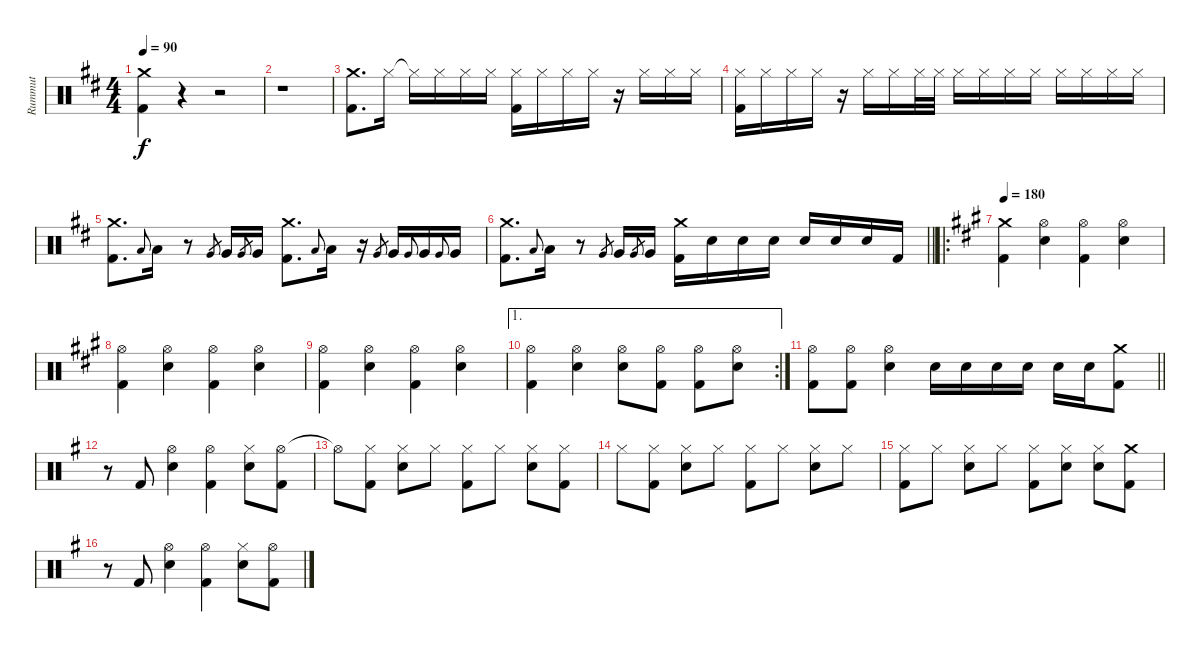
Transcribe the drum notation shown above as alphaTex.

\track ("Rummut" "Rummut") {instrument percussion}
\staff {score}
\articulation defaults
\ts (4 4)
\tempo 90
\clef neutral
\ks d
("Crash medium (hit)" "Kick (hit) 2").4{dy f} r.4 r.2 |
r.1 |
("Crash medium (hit)" "Kick (hit) 2").8{d} "Hi-Hat (closed)".16 "Hi-Hat (closed)"{t}.16 "Hi-Hat (closed)".16 "Hi-Hat (closed)".16 "Hi-Hat (closed)".16 ("Hi-Hat (closed)" "Kick (hit) 2").16 "Hi-Hat (closed)".16 "Hi-Hat (closed)".16 "Hi-Hat (closed)".16 r.16 "Hi-Hat (closed)".16 "Hi-Hat (closed)".16 "Hi-Hat (closed)".16 |
("Hi-Hat (closed)" "Kick (hit) 2").16 "Hi-Hat (closed)".16 "Hi-Hat (closed)".16 "Hi-Hat (closed)".16 r.16 "Hi-Hat (closed)".16 "Hi-Hat (closed)".16 "Hi-Hat (closed)".32 "Hi-Hat (closed)".32 "Hi-Hat (closed)".16 "Hi-Hat (closed)".16 "Hi-Hat (closed)".16 "Hi-Hat (closed)".16 "Hi-Hat (closed)".16 "Hi-Hat (closed)".16 "Hi-Hat (closed)".16 "Hi-Hat (closed)".16 |
("Crash medium (hit)" "Kick (hit) 2").8{d} "Low Tom (hit)".8{gr onbeat} "Low Tom (hit)".16 r.8 "Very Low Tom (hit)".8{gr} "Very Low Tom (hit)".16 "Very Low Tom (hit)".8{gr} "Very Low Tom (hit)".16 ("Crash medium (hit)" "Kick (hit) 2").8{d} "Low Tom (hit)".8{gr onbeat} "Low Tom (hit)".16 r.16 "Very Low Tom (hit)".8{gr} "Very Low Tom (hit)".16 "Very Low Tom (hit)".8{gr onbeat} "Very Low Tom (hit)".16 "Very Low Tom (hit)".8{gr onbeat} "Very Low Tom (hit)".16 |
\barLineRight lightlight
("Crash medium (hit)" "Kick (hit) 2").8{d} "Low Tom (hit)".8{gr onbeat} "Low Tom (hit)".16 r.8 "Very Low Tom (hit)".8{gr} "Very Low Tom (hit)".16 "Very Low Tom (hit)".8{gr} "Very Low Tom (hit)".16 ("Crash medium (hit)" "Kick (hit) 2").16 "Snare (hit) 2".16 "Snare (hit) 2".16 "Snare (hit) 2".16 "Snare (hit) 2".16 "Snare (hit) 2".16 "Snare (hit) 2".16 "Kick (hit) 2".16 |
\ro
\tempo 180
\ks a
("Crash medium (hit)" "Kick (hit) 2").4 ("Hi-Hat (open)" "Snare (hit) 2").4 ("Hi-Hat (open)" "Kick (hit) 2").4 ("Hi-Hat (open)" "Snare (hit) 2").4 |
("Hi-Hat (open)" "Kick (hit) 2").4 ("Hi-Hat (open)" "Snare (hit) 2").4 ("Hi-Hat (open)" "Kick (hit) 2").4 ("Hi-Hat (open)" "Snare (hit) 2").4 |
("Hi-Hat (open)" "Kick (hit) 2").4 ("Hi-Hat (open)" "Snare (hit) 2").4 ("Hi-Hat (open)" "Kick (hit) 2").4 ("Hi-Hat (open)" "Snare (hit) 2").4 |
\ae 1
\rc 2
("Hi-Hat (open)" "Kick (hit) 2").4 ("Hi-Hat (open)" "Snare (hit) 2").4 ("Hi-Hat (open)" "Snare (hit) 2").8 ("Hi-Hat (open)" "Kick (hit) 2").8 ("Hi-Hat (open)" "Kick (hit) 2").8 ("Hi-Hat (open)" "Snare (hit) 2").8 |
\barLineRight lightlight
("Hi-Hat (open)" "Kick (hit) 2").8 ("Hi-Hat (open)" "Kick (hit) 2").8 ("Hi-Hat (open)" "Snare (hit) 2").4 "Snare (hit) 2".16 "Snare (hit) 2".16 "Snare (hit) 2".16 "Snare (hit) 2".16 "Snare (hit) 2".16 "Snare (hit) 2".16 ("Crash medium (hit)" "Kick (hit) 2").8 |
\ks g
r.8 "Kick (hit) 2".8 ("Hi-Hat (open)" "Snare (hit) 2").4 ("Hi-Hat (open)" "Kick (hit) 2").4 ("Hi-Hat (closed)" "Snare (hit) 2").8 ("Hi-Hat (open)" "Kick (hit) 2").8 |
"Hi-Hat (open)"{t}.8 ("Hi-Hat (closed)" "Kick (hit) 2").8 ("Hi-Hat (closed)" "Snare (hit) 2").8 "Hi-Hat (closed)".8 ("Hi-Hat (closed)" "Kick (hit) 2").8 "Hi-Hat (closed)".8 ("Hi-Hat (closed)" "Snare (hit) 2").8 ("Hi-Hat (closed)" "Kick (hit) 2").8 |
"Hi-Hat (closed)".8 ("Hi-Hat (closed)" "Kick (hit) 2").8 ("Hi-Hat (closed)" "Snare (hit) 2").8 "Hi-Hat (closed)".8 ("Hi-Hat (closed)" "Kick (hit) 2").8 "Hi-Hat (closed)".8 ("Hi-Hat (closed)" "Snare (hit) 2").8 "Hi-Hat (closed)".8 |
("Hi-Hat (closed)" "Kick (hit) 2").8 "Hi-Hat (closed)".8 ("Hi-Hat (closed)" "Snare (hit) 2").8 "Hi-Hat (closed)".8 ("Hi-Hat (closed)" "Kick (hit) 2").8 ("Hi-Hat (closed)" "Snare (hit) 2").8 ("Hi-Hat (closed)" "Snare (hit) 2").8 ("Crash medium (hit)" "Kick (hit) 2").8 |
r.8 "Kick (hit) 2".8 ("Hi-Hat (open)" "Snare (hit) 2").4 ("Hi-Hat (open)" "Kick (hit) 2").4 ("Hi-Hat (closed)" "Snare (hit) 2").8 ("Hi-Hat (open)" "Kick (hit) 2").8
